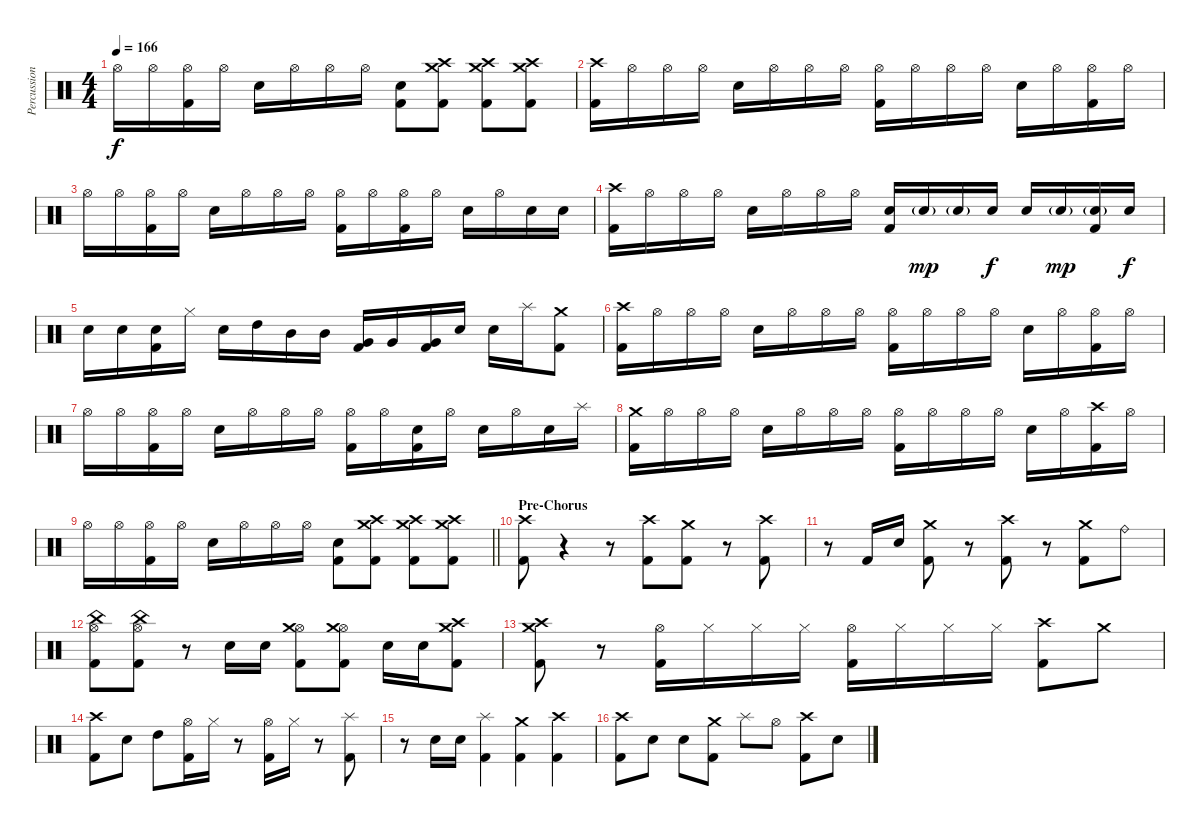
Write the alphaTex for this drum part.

\track ("Percussion" "Percussion") {instrument percussion}
\staff {score}
\articulation defaults
\ts (4 4)
\tempo 166
\clef neutral
\ks c "Hi-Hat (open)".16{dy f} "Hi-Hat (open)".16
("Hi-Hat (open)" "Kick (hit) 2").16 "Hi-Hat (open)".16 "Electric Snare (hit)".16 "Hi-Hat (open)".16 "Hi-Hat (open)".16 "Hi-Hat (open)".16 ("Electric Snare (hit)" "Kick (hit) 2").8 ("Crash medium (hit)" "Crash high (hit)" "Kick (hit) 2").8 ("Crash medium (hit)" "Crash high (hit)" "Kick (hit) 2").8 ("Crash medium (hit)" "Crash high (hit)" "Kick (hit) 2").8 |
("Crash high (hit)" "Kick (hit) 2").16 "Hi-Hat (open)".16 "Hi-Hat (open)".16 "Hi-Hat (open)".16 "Electric Snare (hit)".16 "Hi-Hat (open)".16 "Hi-Hat (open)".16 "Hi-Hat (open)".16 ("Hi-Hat (open)" "Kick (hit) 2").16 "Hi-Hat (open)".16 "Hi-Hat (open)".16 "Hi-Hat (open)".16 "Electric Snare (hit)".16 "Hi-Hat (open)".16 ("Hi-Hat (open)" "Kick (hit) 2").16 "Hi-Hat (open)".16 |
"Hi-Hat (open)".16 "Hi-Hat (open)".16 ("Hi-Hat (open)" "Kick (hit) 2").16 "Hi-Hat (open)".16 "Electric Snare (hit)".16 "Hi-Hat (open)".16 "Hi-Hat (open)".16 "Hi-Hat (open)".16 ("Hi-Hat (open)" "Kick (hit) 2").16 "Hi-Hat (open)".16 ("Hi-Hat (open)" "Kick (hit) 2").16 "Hi-Hat (open)".16 "Electric Snare (hit)".16 "Hi-Hat (open)".16 "Electric Snare (hit)".16 "Electric Snare (hit)".16 |
("Crash high (hit)" "Kick (hit) 2").16 "Hi-Hat (open)".16 "Hi-Hat (open)".16 "Hi-Hat (open)".16 "Electric Snare (hit)".16 "Hi-Hat (open)".16 "Hi-Hat (open)".16 "Hi-Hat (open)".16 ("Electric Snare (hit)" "Kick (hit) 2").16 "Electric Snare (hit)"{g}.16{dy mp} "Electric Snare (hit)"{g}.16 "Electric Snare (hit)".16{dy f} "Electric Snare (hit)".16 "Electric Snare (hit)"{g}.16{dy mp} ("Electric Snare (hit)"{g} "Kick (hit) 2").16 "Electric Snare (hit)".16{dy f} |
"Electric Snare (hit)".16 "Electric Snare (hit)".16 ("Electric Snare (hit)" "Kick (hit) 2").16 "Hi-Hat (closed)".16 "Electric Snare (hit)".16 "High Tom (hit)".16 "Mid Tom (hit)".16 "Mid Tom (hit)".16 ("Very Low Tom (hit)" "Kick (hit) 2").16 "Very Low Tom (hit)".16 ("Very Low Tom (hit)" "Kick (hit) 2").16 "Electric Snare (hit)".16 "Electric Snare (hit)".16 "Splash (hit)".16 ("Crash medium (hit)" "Kick (hit) 2").8 |
("Crash high (hit)" "Kick (hit) 2").16 "Hi-Hat (open)".16 "Hi-Hat (open)".16 "Hi-Hat (open)".16 "Electric Snare (hit)".16 "Hi-Hat (open)".16 "Hi-Hat (open)".16 "Hi-Hat (open)".16 ("Hi-Hat (open)" "Kick (hit) 2").16 "Hi-Hat (open)".16 "Hi-Hat (open)".16 "Hi-Hat (open)".16 "Electric Snare (hit)".16 "Hi-Hat (open)".16 ("Hi-Hat (open)" "Kick (hit) 2").16 "Hi-Hat (open)".16 |
"Hi-Hat (open)".16 "Hi-Hat (open)".16 ("Hi-Hat (open)" "Kick (hit) 2").16 "Hi-Hat (open)".16 "Electric Snare (hit)".16 "Hi-Hat (open)".16 "Hi-Hat (open)".16 "Hi-Hat (open)".16 ("Hi-Hat (open)" "Kick (hit) 2").16 "Hi-Hat (open)".16 ("Electric Snare (hit)" "Kick (hit) 2").16 "Hi-Hat (open)".16 "Electric Snare (hit)".16 "Hi-Hat (open)".16 "Electric Snare (hit)".16 "Splash (hit)".16 |
("Crash medium (hit)" "Kick (hit) 2").16 "Hi-Hat (open)".16 "Hi-Hat (open)".16 "Hi-Hat (open)".16 "Electric Snare (hit)".16 "Hi-Hat (open)".16 "Hi-Hat (open)".16 "Hi-Hat (open)".16 ("Hi-Hat (open)" "Kick (hit) 2").16 "Hi-Hat (open)".16 "Hi-Hat (open)".16 "Hi-Hat (open)".16 "Electric Snare (hit)".16 "Hi-Hat (open)".16 ("Crash high (hit)" "Kick (hit) 2").16 "Hi-Hat (open)".16 |
\barLineRight lightlight "Hi-Hat (open)".16 "Hi-Hat (open)".16
("Hi-Hat (open)" "Kick (hit) 2").16 "Hi-Hat (open)".16 "Electric Snare (hit)".16 "Hi-Hat (open)".16 "Hi-Hat (open)".16 "Hi-Hat (open)".16 ("Electric Snare (hit)" "Kick (hit) 2").8 ("Crash medium (hit)" "Crash high (hit)" "Kick (hit) 2").8 ("Crash medium (hit)" "Crash high (hit)" "Kick (hit) 2").8 ("Crash medium (hit)" "Crash high (hit)" "Kick (hit) 2").8 |
\section ("" "Pre-Chorus")
("Crash high (hit)" "Kick (hit) 2").8 r.4 r.8 ("Crash high (hit)" "Kick (hit) 2").8 ("Crash medium (hit)" "Kick (hit) 2").8 r.8 ("Crash high (hit)" "Kick (hit) 2").8 |
r.8 "Kick (hit) 2".16 "Electric Snare (hit)".16 ("Crash medium (hit)" "Kick (hit) 2").8 r.8 ("Crash high (hit)" "Kick (hit) 2").8 r.8 ("Crash medium (hit)" "Kick (hit) 2").8 "Ride (bell)".8 |
("Hi-Hat (open)" "China (hit)" "Kick (hit) 2").8 ("Hi-Hat (open)" "China (hit)" "Kick (hit) 2").8 r.8 "Electric Snare (hit)".16 "Electric Snare (hit)".16 ("Hi-Hat (open)" "Crash medium (hit)" "Kick (hit) 2").8 ("Hi-Hat (open)" "Crash medium (hit)" "Kick (hit) 2").8 "Electric Snare (hit)".16 "Electric Snare (hit)".16 ("Crash high (hit)" "Crash medium (hit)" "Kick (hit) 2").8 |
("Crash high (hit)" "Crash medium (hit)" "Kick (hit) 2").8 r.8 ("Hi-Hat (open)" "Kick (hit) 2").16 "Hi-Hat (closed)".16 "Hi-Hat (closed)".16 "Hi-Hat (closed)".16 ("Hi-Hat (open)" "Kick (hit) 2").16 "Hi-Hat (closed)".16 "Hi-Hat (closed)".16 "Hi-Hat (closed)".16 ("Crash high (hit)" "Kick (hit) 2").8 "Crash medium (hit)".8 |
("Crash high (hit)" "Kick (hit) 2").8 "Electric Snare (hit)".8 "High Tom (hit)".8 ("Hi-Hat (open)" "Kick (hit) 2").16 "Hi-Hat (closed)".16 r.8 ("Hi-Hat (open)" "Kick (hit) 2").16 "Hi-Hat (closed)".16 r.8 ("Splash (hit)" "Kick (hit) 2").8 |
r.8 "Electric Snare (hit)".16 "Electric Snare (hit)".16 ("Splash (hit)" "Kick (hit) 2").4 ("Crash medium (hit)" "Kick (hit) 2").4 ("Crash high (hit)" "Kick (hit) 2").4 |
("Crash high (hit)" "Kick (hit) 2").8 "Electric Snare (hit)".8 "Electric Snare (hit)".8 ("Crash medium (hit)" "Kick (hit) 2").8 "Splash (hit)".8 "Hi-Hat (open)".8 ("Crash high (hit)" "Kick (hit) 2").8 "Electric Snare (hit)".8
